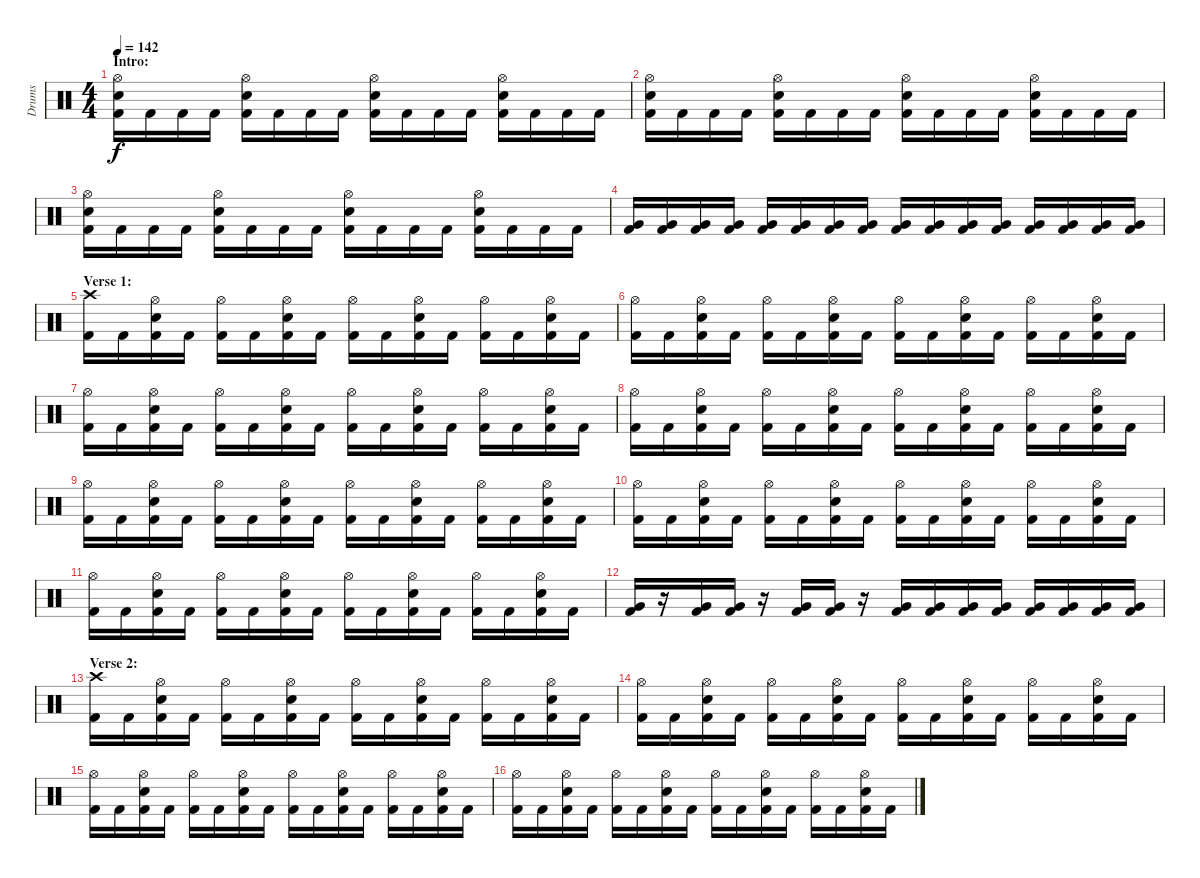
\track ("Drums" "Drums") {instrument percussion}
\staff {score}
\articulation defaults
\ts (4 4)
\section ("" "Intro:")
\tempo 142
\clef neutral
\ks c
("Hi-Hat (open)" "Electric Snare (hit)" "Kick (hit) 2").16{dy f} "Kick (hit) 2".16 "Kick (hit) 2".16 "Kick (hit) 2".16 ("Hi-Hat (open)" "Electric Snare (hit)" "Kick (hit) 2").16 "Kick (hit) 2".16 "Kick (hit) 2".16 "Kick (hit) 2".16 ("Hi-Hat (open)" "Electric Snare (hit)" "Kick (hit) 2").16 "Kick (hit) 2".16 "Kick (hit) 2".16 "Kick (hit) 2".16 ("Hi-Hat (open)" "Electric Snare (hit)" "Kick (hit) 2").16 "Kick (hit) 2".16 "Kick (hit) 2".16 "Kick (hit) 2".16 |
("Hi-Hat (open)" "Electric Snare (hit)" "Kick (hit) 2").16 "Kick (hit) 2".16 "Kick (hit) 2".16 "Kick (hit) 2".16 ("Hi-Hat (open)" "Electric Snare (hit)" "Kick (hit) 2").16 "Kick (hit) 2".16 "Kick (hit) 2".16 "Kick (hit) 2".16 ("Hi-Hat (open)" "Electric Snare (hit)" "Kick (hit) 2").16 "Kick (hit) 2".16 "Kick (hit) 2".16 "Kick (hit) 2".16 ("Hi-Hat (open)" "Electric Snare (hit)" "Kick (hit) 2").16 "Kick (hit) 2".16 "Kick (hit) 2".16 "Kick (hit) 2".16 |
("Hi-Hat (open)" "Electric Snare (hit)" "Kick (hit) 2").16 "Kick (hit) 2".16 "Kick (hit) 2".16 "Kick (hit) 2".16 ("Hi-Hat (open)" "Electric Snare (hit)" "Kick (hit) 2").16 "Kick (hit) 2".16 "Kick (hit) 2".16 "Kick (hit) 2".16 ("Hi-Hat (open)" "Electric Snare (hit)" "Kick (hit) 2").16 "Kick (hit) 2".16 "Kick (hit) 2".16 "Kick (hit) 2".16 ("Hi-Hat (open)" "Electric Snare (hit)" "Kick (hit) 2").16 "Kick (hit) 2".16 "Kick (hit) 2".16 "Kick (hit) 2".16 |
("Very Low Tom (hit)" "Kick (hit) 2").16 ("Very Low Tom (hit)" "Kick (hit) 2").16 ("Very Low Tom (hit)" "Kick (hit) 2").16 ("Very Low Tom (hit)" "Kick (hit) 2").16 ("Very Low Tom (hit)" "Kick (hit) 2").16 ("Very Low Tom (hit)" "Kick (hit) 2").16 ("Very Low Tom (hit)" "Kick (hit) 2").16 ("Very Low Tom (hit)" "Kick (hit) 2").16 ("Very Low Tom (hit)" "Kick (hit) 2").16 ("Very Low Tom (hit)" "Kick (hit) 2").16 ("Very Low Tom (hit)" "Kick (hit) 2").16 ("Very Low Tom (hit)" "Kick (hit) 2").16 ("Very Low Tom (hit)" "Kick (hit) 2").16 ("Very Low Tom (hit)" "Kick (hit) 2").16 ("Very Low Tom (hit)" "Kick (hit) 2").16 ("Very Low Tom (hit)" "Kick (hit) 2").16 |
\section ("" "Verse 1:")
("Crash high (hit)" "Kick (hit) 2").16 "Kick (hit) 2".16 ("Hi-Hat (open)" "Electric Snare (hit)" "Kick (hit) 2").16 "Kick (hit) 2".16 ("Hi-Hat (open)" "Kick (hit) 2").16 "Kick (hit) 2".16 ("Hi-Hat (open)" "Electric Snare (hit)" "Kick (hit) 2").16 "Kick (hit) 2".16 ("Hi-Hat (open)" "Kick (hit) 2").16 "Kick (hit) 2".16 ("Hi-Hat (open)" "Electric Snare (hit)" "Kick (hit) 2").16 "Kick (hit) 2".16 ("Hi-Hat (open)" "Kick (hit) 2").16 "Kick (hit) 2".16 ("Hi-Hat (open)" "Electric Snare (hit)" "Kick (hit) 2").16 "Kick (hit) 2".16 |
("Hi-Hat (open)" "Kick (hit) 2").16 "Kick (hit) 2".16 ("Hi-Hat (open)" "Electric Snare (hit)" "Kick (hit) 2").16 "Kick (hit) 2".16 ("Hi-Hat (open)" "Kick (hit) 2").16 "Kick (hit) 2".16 ("Hi-Hat (open)" "Electric Snare (hit)" "Kick (hit) 2").16 "Kick (hit) 2".16 ("Hi-Hat (open)" "Kick (hit) 2").16 "Kick (hit) 2".16 ("Hi-Hat (open)" "Electric Snare (hit)" "Kick (hit) 2").16 "Kick (hit) 2".16 ("Hi-Hat (open)" "Kick (hit) 2").16 "Kick (hit) 2".16 ("Hi-Hat (open)" "Electric Snare (hit)" "Kick (hit) 2").16 "Kick (hit) 2".16 |
("Hi-Hat (open)" "Kick (hit) 2").16 "Kick (hit) 2".16 ("Hi-Hat (open)" "Electric Snare (hit)" "Kick (hit) 2").16 "Kick (hit) 2".16 ("Hi-Hat (open)" "Kick (hit) 2").16 "Kick (hit) 2".16 ("Hi-Hat (open)" "Electric Snare (hit)" "Kick (hit) 2").16 "Kick (hit) 2".16 ("Hi-Hat (open)" "Kick (hit) 2").16 "Kick (hit) 2".16 ("Hi-Hat (open)" "Electric Snare (hit)" "Kick (hit) 2").16 "Kick (hit) 2".16 ("Hi-Hat (open)" "Kick (hit) 2").16 "Kick (hit) 2".16 ("Hi-Hat (open)" "Electric Snare (hit)" "Kick (hit) 2").16 "Kick (hit) 2".16 |
("Hi-Hat (open)" "Kick (hit) 2").16 "Kick (hit) 2".16 ("Hi-Hat (open)" "Electric Snare (hit)" "Kick (hit) 2").16 "Kick (hit) 2".16 ("Hi-Hat (open)" "Kick (hit) 2").16 "Kick (hit) 2".16 ("Hi-Hat (open)" "Electric Snare (hit)" "Kick (hit) 2").16 "Kick (hit) 2".16 ("Hi-Hat (open)" "Kick (hit) 2").16 "Kick (hit) 2".16 ("Hi-Hat (open)" "Electric Snare (hit)" "Kick (hit) 2").16 "Kick (hit) 2".16 ("Hi-Hat (open)" "Kick (hit) 2").16 "Kick (hit) 2".16 ("Hi-Hat (open)" "Electric Snare (hit)" "Kick (hit) 2").16 "Kick (hit) 2".16 |
("Hi-Hat (open)" "Kick (hit) 2").16 "Kick (hit) 2".16 ("Hi-Hat (open)" "Electric Snare (hit)" "Kick (hit) 2").16 "Kick (hit) 2".16 ("Hi-Hat (open)" "Kick (hit) 2").16 "Kick (hit) 2".16 ("Hi-Hat (open)" "Electric Snare (hit)" "Kick (hit) 2").16 "Kick (hit) 2".16 ("Hi-Hat (open)" "Kick (hit) 2").16 "Kick (hit) 2".16 ("Hi-Hat (open)" "Electric Snare (hit)" "Kick (hit) 2").16 "Kick (hit) 2".16 ("Hi-Hat (open)" "Kick (hit) 2").16 "Kick (hit) 2".16 ("Hi-Hat (open)" "Electric Snare (hit)" "Kick (hit) 2").16 "Kick (hit) 2".16 |
("Hi-Hat (open)" "Kick (hit) 2").16 "Kick (hit) 2".16 ("Hi-Hat (open)" "Electric Snare (hit)" "Kick (hit) 2").16 "Kick (hit) 2".16 ("Hi-Hat (open)" "Kick (hit) 2").16 "Kick (hit) 2".16 ("Hi-Hat (open)" "Electric Snare (hit)" "Kick (hit) 2").16 "Kick (hit) 2".16 ("Hi-Hat (open)" "Kick (hit) 2").16 "Kick (hit) 2".16 ("Hi-Hat (open)" "Electric Snare (hit)" "Kick (hit) 2").16 "Kick (hit) 2".16 ("Hi-Hat (open)" "Kick (hit) 2").16 "Kick (hit) 2".16 ("Hi-Hat (open)" "Electric Snare (hit)" "Kick (hit) 2").16 "Kick (hit) 2".16 |
("Hi-Hat (open)" "Kick (hit) 2").16 "Kick (hit) 2".16 ("Hi-Hat (open)" "Electric Snare (hit)" "Kick (hit) 2").16 "Kick (hit) 2".16 ("Hi-Hat (open)" "Kick (hit) 2").16 "Kick (hit) 2".16 ("Hi-Hat (open)" "Electric Snare (hit)" "Kick (hit) 2").16 "Kick (hit) 2".16 ("Hi-Hat (open)" "Kick (hit) 2").16 "Kick (hit) 2".16 ("Hi-Hat (open)" "Electric Snare (hit)" "Kick (hit) 2").16 "Kick (hit) 2".16 ("Hi-Hat (open)" "Kick (hit) 2").16 "Kick (hit) 2".16 ("Hi-Hat (open)" "Electric Snare (hit)" "Kick (hit) 2").16 "Kick (hit) 2".16 |
("Very Low Tom (hit)" "Kick (hit) 2").16 r.16 ("Very Low Tom (hit)" "Kick (hit) 2").16 ("Very Low Tom (hit)" "Kick (hit) 2").16 r.16 ("Very Low Tom (hit)" "Kick (hit) 2").16 ("Very Low Tom (hit)" "Kick (hit) 2").16 r.16 ("Very Low Tom (hit)" "Kick (hit) 2").16 ("Very Low Tom (hit)" "Kick (hit) 2").16 ("Very Low Tom (hit)" "Kick (hit) 2").16 ("Very Low Tom (hit)" "Kick (hit) 2").16 ("Very Low Tom (hit)" "Kick (hit) 2").16 ("Very Low Tom (hit)" "Kick (hit) 2").16 ("Very Low Tom (hit)" "Kick (hit) 2").16 ("Very Low Tom (hit)" "Kick (hit) 2").16 |
\section ("" "Verse 2:")
("Crash high (hit)" "Kick (hit) 2").16 "Kick (hit) 2".16 ("Hi-Hat (open)" "Electric Snare (hit)" "Kick (hit) 2").16 "Kick (hit) 2".16 ("Hi-Hat (open)" "Kick (hit) 2").16 "Kick (hit) 2".16 ("Hi-Hat (open)" "Electric Snare (hit)" "Kick (hit) 2").16 "Kick (hit) 2".16 ("Hi-Hat (open)" "Kick (hit) 2").16 "Kick (hit) 2".16 ("Hi-Hat (open)" "Electric Snare (hit)" "Kick (hit) 2").16 "Kick (hit) 2".16 ("Hi-Hat (open)" "Kick (hit) 2").16 "Kick (hit) 2".16 ("Hi-Hat (open)" "Electric Snare (hit)" "Kick (hit) 2").16 "Kick (hit) 2".16 |
("Hi-Hat (open)" "Kick (hit) 2").16 "Kick (hit) 2".16 ("Hi-Hat (open)" "Electric Snare (hit)" "Kick (hit) 2").16 "Kick (hit) 2".16 ("Hi-Hat (open)" "Kick (hit) 2").16 "Kick (hit) 2".16 ("Hi-Hat (open)" "Electric Snare (hit)" "Kick (hit) 2").16 "Kick (hit) 2".16 ("Hi-Hat (open)" "Kick (hit) 2").16 "Kick (hit) 2".16 ("Hi-Hat (open)" "Electric Snare (hit)" "Kick (hit) 2").16 "Kick (hit) 2".16 ("Hi-Hat (open)" "Kick (hit) 2").16 "Kick (hit) 2".16 ("Hi-Hat (open)" "Electric Snare (hit)" "Kick (hit) 2").16 "Kick (hit) 2".16 |
("Hi-Hat (open)" "Kick (hit) 2").16 "Kick (hit) 2".16 ("Hi-Hat (open)" "Electric Snare (hit)" "Kick (hit) 2").16 "Kick (hit) 2".16 ("Hi-Hat (open)" "Kick (hit) 2").16 "Kick (hit) 2".16 ("Hi-Hat (open)" "Electric Snare (hit)" "Kick (hit) 2").16 "Kick (hit) 2".16 ("Hi-Hat (open)" "Kick (hit) 2").16 "Kick (hit) 2".16 ("Hi-Hat (open)" "Electric Snare (hit)" "Kick (hit) 2").16 "Kick (hit) 2".16 ("Hi-Hat (open)" "Kick (hit) 2").16 "Kick (hit) 2".16 ("Hi-Hat (open)" "Electric Snare (hit)" "Kick (hit) 2").16 "Kick (hit) 2".16 |
("Hi-Hat (open)" "Kick (hit) 2").16 "Kick (hit) 2".16 ("Hi-Hat (open)" "Electric Snare (hit)" "Kick (hit) 2").16 "Kick (hit) 2".16 ("Hi-Hat (open)" "Kick (hit) 2").16 "Kick (hit) 2".16 ("Hi-Hat (open)" "Electric Snare (hit)" "Kick (hit) 2").16 "Kick (hit) 2".16 ("Hi-Hat (open)" "Kick (hit) 2").16 "Kick (hit) 2".16 ("Hi-Hat (open)" "Electric Snare (hit)" "Kick (hit) 2").16 "Kick (hit) 2".16 ("Hi-Hat (open)" "Kick (hit) 2").16 "Kick (hit) 2".16 ("Hi-Hat (open)" "Electric Snare (hit)" "Kick (hit) 2").16 "Kick (hit) 2".16
